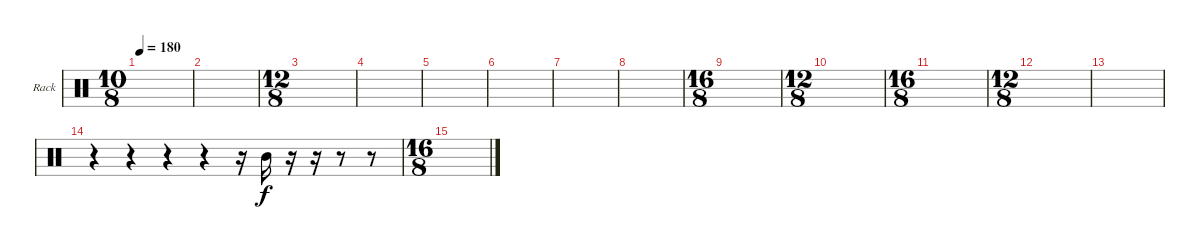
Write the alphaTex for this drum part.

\defaultSystemsLayout 4
\bracketExtendMode groupsimilarinstruments
\firstSystemTrackNameOrientation horizontal
\otherSystemsTrackNameOrientation horizontal
\track ("Rack Toms" "Rack") {instrument percussion}
\staff {score}
\articulation defaults
\ts (10 8)
\tempo 180
\clef neutral
\ks c
|
|
\ts (12 8)
|
|
|
|
|
|
\ts (16 8)
|
\ts (12 8)
|
\ts (16 8)
|
\ts (12 8)
|
|
r.4 r.4 r.4 r.4 r.16 "Mid Tom (hit)".16 r.16 r.16 r.8 r.8 |
\ts (16 8)
